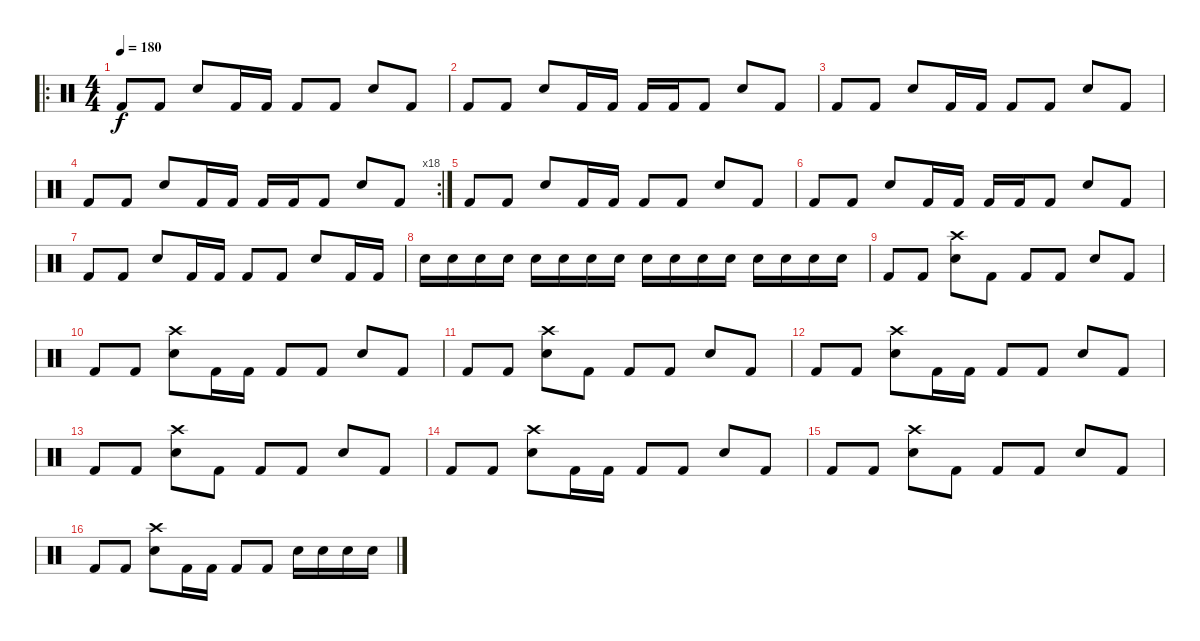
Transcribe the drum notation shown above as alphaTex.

\track "" {instrument percussion}
\staff {score}
\articulation defaults
\ro
\ts (4 4)
\section ("" "")
\tempo 180
\clef neutral
\ks c "Kick (hit) 2".8{txt "" dy f} "Kick (hit) 2".8 "Electric Snare (hit)".8 "Kick (hit) 2".16 "Kick (hit) 2".16 "Kick (hit) 2".8 "Kick (hit) 2".8 "Electric Snare (hit)".8 "Kick (hit) 2".8
|
"Kick (hit) 2".8 "Kick (hit) 2".8 "Electric Snare (hit)".8 "Kick (hit) 2".16 "Kick (hit) 2".16 "Kick (hit) 2".16 "Kick (hit) 2".16 "Kick (hit) 2".8 "Electric Snare (hit)".8 "Kick (hit) 2".8 |
"Kick (hit) 2".8 "Kick (hit) 2".8 "Electric Snare (hit)".8 "Kick (hit) 2".16 "Kick (hit) 2".16 "Kick (hit) 2".8 "Kick (hit) 2".8 "Electric Snare (hit)".8 "Kick (hit) 2".8 |
\rc 18 "Kick (hit) 2".8 "Kick (hit) 2".8 "Electric Snare (hit)".8 "Kick (hit) 2".16 "Kick (hit) 2".16 "Kick (hit) 2".16 "Kick (hit) 2".16 "Kick (hit) 2".8 "Electric Snare (hit)".8 "Kick (hit) 2".8
|
"Kick (hit) 2".8 "Kick (hit) 2".8 "Electric Snare (hit)".8 "Kick (hit) 2".16 "Kick (hit) 2".16 "Kick (hit) 2".8 "Kick (hit) 2".8 "Electric Snare (hit)".8 "Kick (hit) 2".8 |
"Kick (hit) 2".8 "Kick (hit) 2".8 "Electric Snare (hit)".8 "Kick (hit) 2".16 "Kick (hit) 2".16 "Kick (hit) 2".16 "Kick (hit) 2".16 "Kick (hit) 2".8 "Electric Snare (hit)".8 "Kick (hit) 2".8 |
"Kick (hit) 2".8 "Kick (hit) 2".8 "Electric Snare (hit)".8 "Kick (hit) 2".16 "Kick (hit) 2".16 "Kick (hit) 2".8 "Kick (hit) 2".8 "Electric Snare (hit)".8 "Kick (hit) 2".16 "Kick (hit) 2".16 |
"Snare (hit) 2".16 "Snare (hit) 2".16 "Snare (hit) 2".16 "Snare (hit) 2".16 "Snare (hit) 2".16 "Snare (hit) 2".16 "Snare (hit) 2".16 "Snare (hit) 2".16 "Snare (hit) 2".16 "Snare (hit) 2".16 "Snare (hit) 2".16 "Snare (hit) 2".16 "Snare (hit) 2".16 "Snare (hit) 2".16 "Snare (hit) 2".16 "Snare (hit) 2".16 |
\section ("" "")
"Kick (hit) 2".8{txt ""} "Kick (hit) 2".8 ("Crash high (hit)" "Snare (hit) 2").8 "Kick (hit) 2".8 "Kick (hit) 2".8 "Kick (hit) 2".8 "Snare (hit) 2".8 "Kick (hit) 2".8 |
"Kick (hit) 2".8 "Kick (hit) 2".8 ("Crash high (hit)" "Snare (hit) 2").8 "Kick (hit) 2".16 "Kick (hit) 2".16 "Kick (hit) 2".8 "Kick (hit) 2".8 "Snare (hit) 2".8 "Kick (hit) 2".8 |
"Kick (hit) 2".8 "Kick (hit) 2".8 ("Crash high (hit)" "Snare (hit) 2").8 "Kick (hit) 2".8 "Kick (hit) 2".8 "Kick (hit) 2".8 "Snare (hit) 2".8 "Kick (hit) 2".8 |
"Kick (hit) 2".8 "Kick (hit) 2".8 ("Crash high (hit)" "Snare (hit) 2").8 "Kick (hit) 2".16 "Kick (hit) 2".16 "Kick (hit) 2".8 "Kick (hit) 2".8 "Snare (hit) 2".8 "Kick (hit) 2".8 |
"Kick (hit) 2".8 "Kick (hit) 2".8 ("Crash high (hit)" "Snare (hit) 2").8 "Kick (hit) 2".8 "Kick (hit) 2".8 "Kick (hit) 2".8 "Snare (hit) 2".8 "Kick (hit) 2".8 |
"Kick (hit) 2".8 "Kick (hit) 2".8 ("Crash high (hit)" "Snare (hit) 2").8 "Kick (hit) 2".16 "Kick (hit) 2".16 "Kick (hit) 2".8 "Kick (hit) 2".8 "Snare (hit) 2".8 "Kick (hit) 2".8 |
"Kick (hit) 2".8 "Kick (hit) 2".8 ("Crash high (hit)" "Snare (hit) 2").8 "Kick (hit) 2".8 "Kick (hit) 2".8 "Kick (hit) 2".8 "Snare (hit) 2".8 "Kick (hit) 2".8 |
"Kick (hit) 2".8 "Kick (hit) 2".8 ("Crash high (hit)" "Snare (hit) 2").8 "Kick (hit) 2".16 "Kick (hit) 2".16 "Kick (hit) 2".8 "Kick (hit) 2".8 "Snare (hit) 2".16 "Snare (hit) 2".16 "Snare (hit) 2".16 "Snare (hit) 2".16
